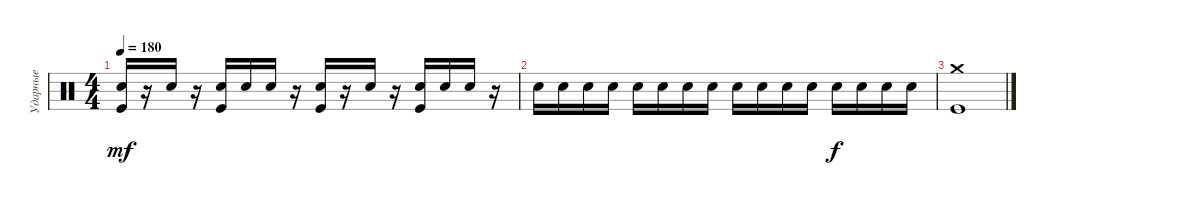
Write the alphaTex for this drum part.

\track ("Ударные" "Ударные") {instrument percussion}
\staff {score}
\articulation defaults
\ts (4 4)
\tempo 180
\clef neutral
\ks c
("Electric Snare (hit)" "Kick (hit)").16{dy mf} r.16 "Electric Snare (hit)".16 r.16 ("Electric Snare (hit)" "Kick (hit)").16 "Electric Snare (hit)".16 "Electric Snare (hit)".16 r.16 ("Electric Snare (hit)" "Kick (hit)").16 r.16 "Electric Snare (hit)".16 r.16 ("Electric Snare (hit)" "Kick (hit)").16 "Electric Snare (hit)".16 "Electric Snare (hit)".16 r.16 |
"Electric Snare (hit)".16 "Electric Snare (hit)".16 "Electric Snare (hit)".16 "Electric Snare (hit)".16 "Electric Snare (hit)".16 "Electric Snare (hit)".16 "Electric Snare (hit)".16 "Electric Snare (hit)".16 "Electric Snare (hit)".16 "Electric Snare (hit)".16 "Electric Snare (hit)".16 "Electric Snare (hit)".16 "Electric Snare (hit)".16{dy f} "Electric Snare (hit)".16 "Electric Snare (hit)".16 "Electric Snare (hit)".16 |
("Crash medium (hit)" "Kick (hit)").1
